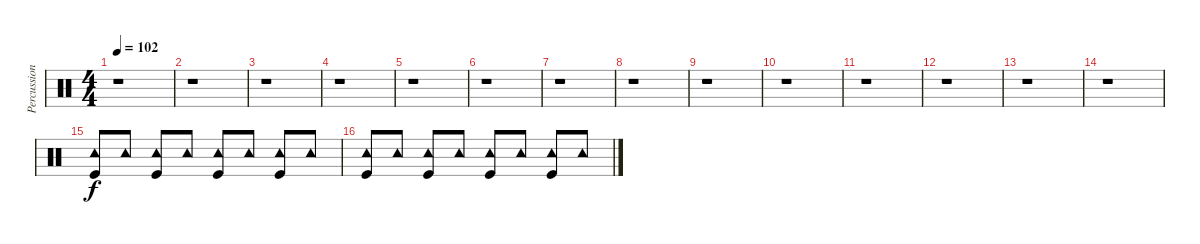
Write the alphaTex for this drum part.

\track ("Percussion" "Percussion") {instrument percussion}
\staff {score}
\articulation defaults
\ts (4 4)
\tempo 102
\clef neutral
\ks c
r.1{dy f} |
r.1 |
r.1 |
r.1 |
r.1 |
r.1 |
r.1 |
r.1 |
r.1 |
r.1 |
r.1 |
r.1 |
r.1 |
r.1 |
("Tambourine (hit)" "Kick (hit)").8 "Tambourine (hit)".8 ("Tambourine (hit)" "Kick (hit)").8 "Tambourine (hit)".8 ("Tambourine (hit)" "Kick (hit)").8 "Tambourine (hit)".8 ("Tambourine (hit)" "Kick (hit)").8 "Tambourine (hit)".8 |
("Tambourine (hit)" "Kick (hit)").8 "Tambourine (hit)".8 ("Tambourine (hit)" "Kick (hit)").8 "Tambourine (hit)".8 ("Tambourine (hit)" "Kick (hit)").8 "Tambourine (hit)".8 ("Tambourine (hit)" "Kick (hit)").8 "Tambourine (hit)".8
